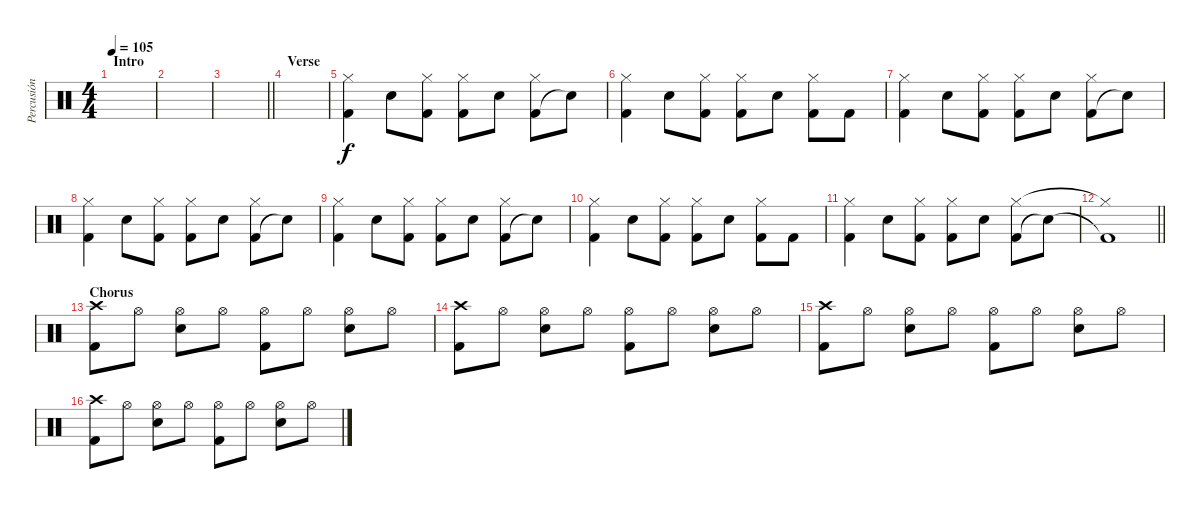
\track ("Percusión" "Percusión") {instrument percussion}
\staff {score}
\articulation defaults
\ts (4 4)
\section ("" "Intro")
\tempo 105
\clef neutral
\ks c
|
|
\barLineRight lightlight
|
\section ("" "Verse")
|
("Kick (hit) 2" "Hi-Hat (closed)").4 "Snare (hit) 2".8 ("Kick (hit) 2" "Hi-Hat (closed)").8 ("Kick (hit) 2" "Hi-Hat (closed)").8 "Snare (hit) 2".8 ("Kick (hit) 2" "Hi-Hat (closed)").8 "Snare (hit) 2"{t}.8 |
("Kick (hit) 2" "Hi-Hat (closed)").4 "Snare (hit) 2".8 ("Kick (hit) 2" "Hi-Hat (closed)").8 ("Kick (hit) 2" "Hi-Hat (closed)").8 "Snare (hit) 2".8 ("Kick (hit) 2" "Hi-Hat (closed)").8 "Kick (hit) 2".8 |
("Kick (hit) 2" "Hi-Hat (closed)").4 "Snare (hit) 2".8 ("Kick (hit) 2" "Hi-Hat (closed)").8 ("Kick (hit) 2" "Hi-Hat (closed)").8 "Snare (hit) 2".8 ("Kick (hit) 2" "Hi-Hat (closed)").8 "Snare (hit) 2"{t}.8 |
("Kick (hit) 2" "Hi-Hat (closed)").4 "Snare (hit) 2".8 ("Kick (hit) 2" "Hi-Hat (closed)").8 ("Kick (hit) 2" "Hi-Hat (closed)").8 "Snare (hit) 2".8 ("Kick (hit) 2" "Hi-Hat (closed)").8 "Snare (hit) 2"{t}.8 |
("Kick (hit) 2" "Hi-Hat (closed)").4 "Snare (hit) 2".8 ("Kick (hit) 2" "Hi-Hat (closed)").8 ("Kick (hit) 2" "Hi-Hat (closed)").8 "Snare (hit) 2".8 ("Kick (hit) 2" "Hi-Hat (closed)").8 "Snare (hit) 2"{t}.8 |
("Kick (hit) 2" "Hi-Hat (closed)").4 "Snare (hit) 2".8 ("Kick (hit) 2" "Hi-Hat (closed)").8 ("Kick (hit) 2" "Hi-Hat (closed)").8 "Snare (hit) 2".8 ("Kick (hit) 2" "Hi-Hat (closed)").8 "Kick (hit) 2".8 |
("Kick (hit) 2" "Hi-Hat (closed)").4 "Snare (hit) 2".8 ("Kick (hit) 2" "Hi-Hat (closed)").8 ("Kick (hit) 2" "Hi-Hat (closed)").8 "Snare (hit) 2".8 ("Kick (hit) 2" "Hi-Hat (closed)").8 "Snare (hit) 2"{t}.8 |
\barLineRight lightlight
("Kick (hit) 2"{t} "Hi-Hat (closed)"{t}).1 |
\section ("" "Chorus")
("Crash high (hit)" "Kick (hit) 2").8 "Hi-Hat (open)".8 ("Hi-Hat (open)" "Snare (hit) 2").8 "Hi-Hat (open)".8 ("Hi-Hat (open)" "Kick (hit) 2").8 "Hi-Hat (open)".8 ("Hi-Hat (open)" "Snare (hit) 2").8 "Hi-Hat (open)".8 |
("Crash high (hit)" "Kick (hit) 2").8 "Hi-Hat (open)".8 ("Hi-Hat (open)" "Snare (hit) 2").8 "Hi-Hat (open)".8 ("Hi-Hat (open)" "Kick (hit) 2").8 "Hi-Hat (open)".8 ("Hi-Hat (open)" "Snare (hit) 2").8 "Hi-Hat (open)".8 |
("Crash high (hit)" "Kick (hit) 2").8 "Hi-Hat (open)".8 ("Hi-Hat (open)" "Snare (hit) 2").8 "Hi-Hat (open)".8 ("Hi-Hat (open)" "Kick (hit) 2").8 "Hi-Hat (open)".8 ("Hi-Hat (open)" "Snare (hit) 2").8 "Hi-Hat (open)".8 |
("Crash high (hit)" "Kick (hit) 2").8 "Hi-Hat (open)".8 ("Hi-Hat (open)" "Snare (hit) 2").8 "Hi-Hat (open)".8 ("Hi-Hat (open)" "Kick (hit) 2").8 "Hi-Hat (open)".8 ("Hi-Hat (open)" "Snare (hit) 2").8 "Hi-Hat (open)".8
